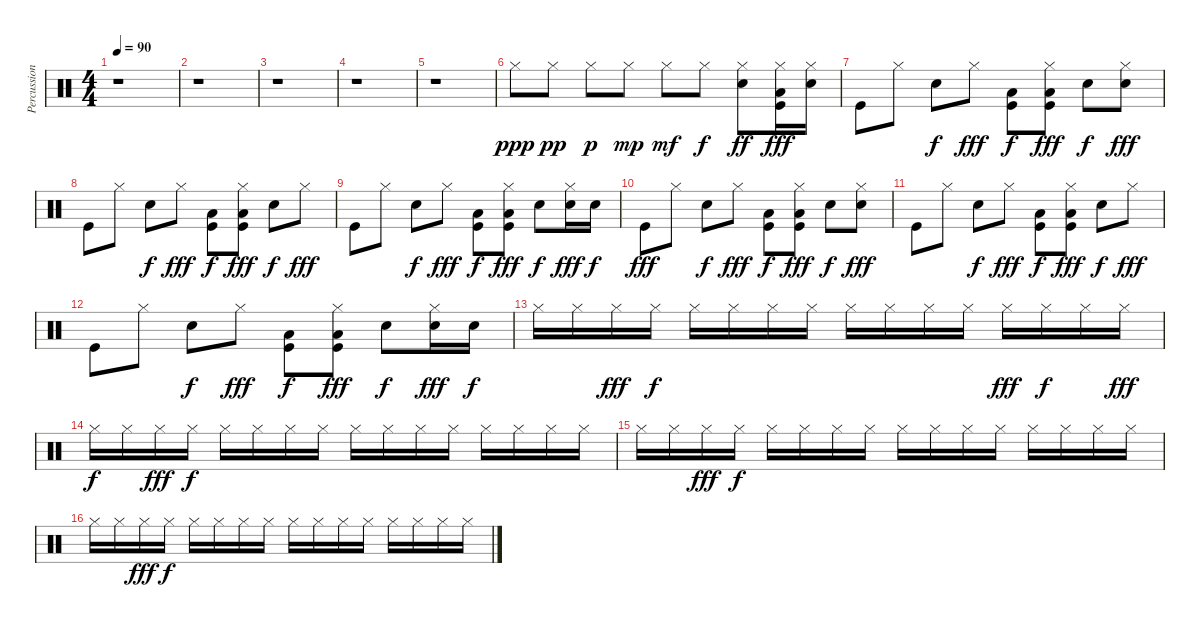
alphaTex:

\track ("Percussions" "Percussion") {instrument percussion}
\staff {score}
\articulation defaults
\ts (4 4)
\tempo 90
\clef neutral
\ks c
r.1{dy ppp} |
r.1 |
r.1 |
r.1 |
r.1 |
"Hi-Hat (closed)".8 "Hi-Hat (closed)".8{dy pp} "Hi-Hat (closed)".8{dy p} "Hi-Hat (closed)".8{dy mp} "Hi-Hat (closed)".8{dy mf} "Hi-Hat (closed)".8{dy f} ("Hi-Hat (closed)" "Snare (hit) 2").8{dy ff} ("Hi-Hat (closed)" "Kick (hit)" "Low Floor Tom (hit)").16{dy fff} ("Snare (hit) 2" "Hi-Hat (closed)").16 |
"Kick (hit)".8 "Hi-Hat (closed)".8 "Snare (hit) 2".8{dy f} "Hi-Hat (closed)".8{dy fff} ("Kick (hit)" "Low Floor Tom (hit)").8{dy f} ("Hi-Hat (closed)" "Kick (hit)" "Low Floor Tom (hit)").8{dy fff} "Snare (hit) 2".8{dy f} ("Hi-Hat (closed)" "Snare (hit) 2").8{dy fff} |
"Kick (hit)".8 "Hi-Hat (closed)".8 "Snare (hit) 2".8{dy f} "Hi-Hat (closed)".8{dy fff} ("Kick (hit)" "Low Floor Tom (hit)").8{dy f} ("Hi-Hat (closed)" "Kick (hit)" "Low Floor Tom (hit)").8{dy fff} "Snare (hit) 2".8{dy f} "Hi-Hat (closed)".8{dy fff} |
"Kick (hit)".8 "Hi-Hat (closed)".8 "Snare (hit) 2".8{dy f} "Hi-Hat (closed)".8{dy fff} ("Kick (hit)" "Low Floor Tom (hit)").8{dy f} ("Hi-Hat (closed)" "Kick (hit)" "Low Floor Tom (hit)").8{dy fff} "Snare (hit) 2".8{dy f} ("Hi-Hat (closed)" "Snare (hit) 2").16{dy fff} "Snare (hit) 2".16{dy f} |
"Kick (hit)".8{dy fff} "Hi-Hat (closed)".8 "Snare (hit) 2".8{dy f} "Hi-Hat (closed)".8{dy fff} ("Kick (hit)" "Low Floor Tom (hit)").8{dy f} ("Hi-Hat (closed)" "Kick (hit)" "Low Floor Tom (hit)").8{dy fff} "Snare (hit) 2".8{dy f} ("Hi-Hat (closed)" "Snare (hit) 2").8{dy fff} |
"Kick (hit)".8 "Hi-Hat (closed)".8 "Snare (hit) 2".8{dy f} "Hi-Hat (closed)".8{dy fff} ("Kick (hit)" "Low Floor Tom (hit)").8{dy f} ("Hi-Hat (closed)" "Kick (hit)" "Low Floor Tom (hit)").8{dy fff} "Snare (hit) 2".8{dy f} "Hi-Hat (closed)".8{dy fff} |
"Kick (hit)".8 "Hi-Hat (closed)".8 "Snare (hit) 2".8{dy f} "Hi-Hat (closed)".8{dy fff} ("Kick (hit)" "Low Floor Tom (hit)").8{dy f} ("Hi-Hat (closed)" "Kick (hit)" "Low Floor Tom (hit)").8{dy fff} "Snare (hit) 2".8{dy f} ("Hi-Hat (closed)" "Snare (hit) 2").16{dy fff} "Snare (hit) 2".16{dy f} |
"Hi-Hat (closed)".16 "Hi-Hat (closed)".16 "Hi-Hat (closed)".16{dy fff} "Hi-Hat (closed)".16{dy f} "Hi-Hat (closed)".16 "Hi-Hat (closed)".16 "Hi-Hat (closed)".16 "Hi-Hat (closed)".16 "Hi-Hat (closed)".16 "Hi-Hat (closed)".16 "Hi-Hat (closed)".16 "Hi-Hat (closed)".16 "Hi-Hat (closed)".16{dy fff} "Hi-Hat (closed)".16{dy f} "Hi-Hat (closed)".16 "Hi-Hat (closed)".16{dy fff} |
"Hi-Hat (closed)".16{dy f} "Hi-Hat (closed)".16 "Hi-Hat (closed)".16{dy fff} "Hi-Hat (closed)".16{dy f} "Hi-Hat (closed)".16 "Hi-Hat (closed)".16 "Hi-Hat (closed)".16 "Hi-Hat (closed)".16 "Hi-Hat (closed)".16 "Hi-Hat (closed)".16 "Hi-Hat (closed)".16 "Hi-Hat (closed)".16 "Hi-Hat (closed)".16 "Hi-Hat (closed)".16 "Hi-Hat (closed)".16 "Hi-Hat (closed)".16 |
"Hi-Hat (closed)".16 "Hi-Hat (closed)".16 "Hi-Hat (closed)".16{dy fff} "Hi-Hat (closed)".16{dy f} "Hi-Hat (closed)".16 "Hi-Hat (closed)".16 "Hi-Hat (closed)".16 "Hi-Hat (closed)".16 "Hi-Hat (closed)".16 "Hi-Hat (closed)".16 "Hi-Hat (closed)".16 "Hi-Hat (closed)".16 "Hi-Hat (closed)".16 "Hi-Hat (closed)".16 "Hi-Hat (closed)".16 "Hi-Hat (closed)".16 |
"Hi-Hat (closed)".16 "Hi-Hat (closed)".16 "Hi-Hat (closed)".16{dy fff} "Hi-Hat (closed)".16{dy f} "Hi-Hat (closed)".16 "Hi-Hat (closed)".16 "Hi-Hat (closed)".16 "Hi-Hat (closed)".16 "Hi-Hat (closed)".16 "Hi-Hat (closed)".16 "Hi-Hat (closed)".16 "Hi-Hat (closed)".16 "Hi-Hat (closed)".16 "Hi-Hat (closed)".16 "Hi-Hat (closed)".16 "Hi-Hat (closed)".16
